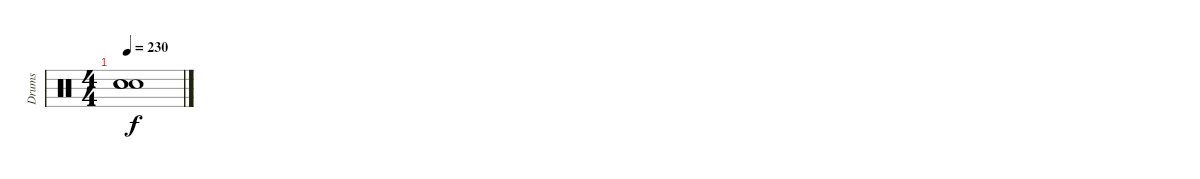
\track ("Drums" "Drums") {instrument percussion}
\staff {score}
\articulation defaults
\ts (4 4)
\tempo 230
\clef neutral
\ks c
("Snare (hit)"{t} "Snare (hit)"{t} "Snare (hit)"{t}).1{dy f}
